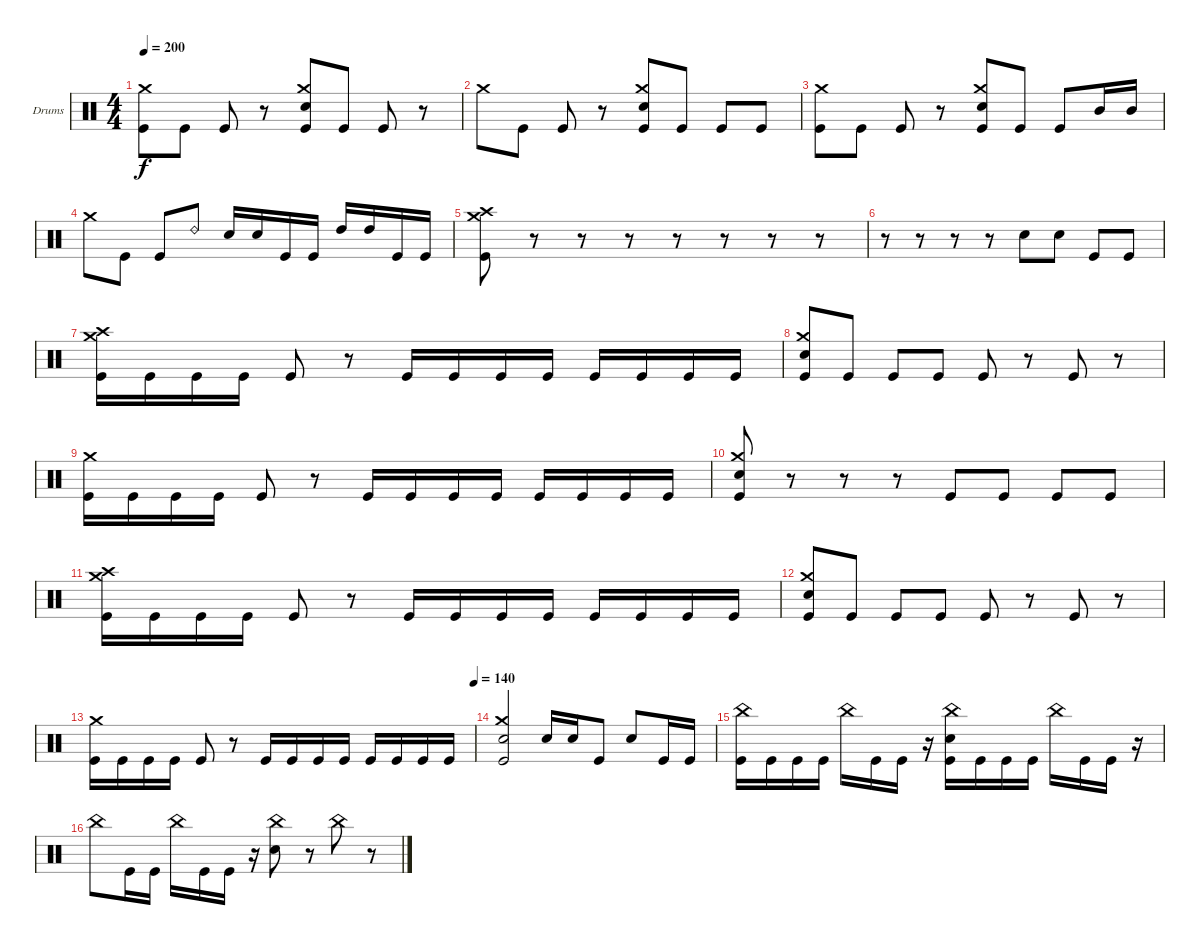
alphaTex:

\bracketExtendMode groupsimilarinstruments
\firstSystemTrackNameOrientation horizontal
\otherSystemsTrackNameOrientation horizontal
\track ("Drumkit" "Drums") {instrument percussion}
\staff {score}
\articulation defaults
\ts (4 4)
\tempo 200
\clef neutral
\ks c
("Kick (hit)" "Crash medium (hit)").8{dy f} "Kick (hit)".8 "Kick (hit)".8 r.8 ("Kick (hit)" "Crash medium (hit)" "Snare (hit) 2").8 "Kick (hit)".8 "Kick (hit)".8 r.8 |
"Crash medium (hit)".8 "Kick (hit)".8 "Kick (hit)".8 r.8 ("Crash medium (hit)" "Snare (hit) 2" "Kick (hit)").8 "Kick (hit)".8 "Kick (hit)".8 "Kick (hit)".8 |
("Kick (hit)" "Crash medium (hit)").8 "Kick (hit)".8 "Kick (hit)".8 r.8 ("Kick (hit)" "Crash medium (hit)" "Snare (hit) 2").8 "Kick (hit)".8 "Kick (hit)".8 "Mid Tom (hit)".16 "Mid Tom (hit)".16 |
"Crash medium (hit)".8 "Kick (hit)".8 "Kick (hit)".8 "Ride (bell) 2".8 "Snare (hit) 2".16 "Snare (hit) 2".16 "Kick (hit)".16 "Kick (hit)".16 "High Tom (hit)".16 "High Tom (hit)".16 "Kick (hit)".16 "Kick (hit)".16 |
("Kick (hit)" "Crash medium (hit)" "Crash high (hit)").8 r.8 r.8 r.8 r.8 r.8 r.8 r.8 |
r.8 r.8 r.8 r.8 "Snare (hit) 2".8 "Snare (hit) 2".8 "Kick (hit)".8 "Kick (hit)".8 |
("Kick (hit)" "Crash medium (hit)" "Crash high (hit)").16 "Kick (hit)".16 "Kick (hit)".16 "Kick (hit)".16 "Kick (hit)".8 r.8 "Kick (hit)".16 "Kick (hit)".16 "Kick (hit)".16 "Kick (hit)".16 "Kick (hit)".16 "Kick (hit)".16 "Kick (hit)".16 "Kick (hit)".16 |
("Kick (hit)" "Crash medium (hit)" "Snare (hit) 2").8 "Kick (hit)".8 "Kick (hit)".8 "Kick (hit)".8 "Kick (hit)".8 r.8 "Kick (hit)".8 r.8 |
("Kick (hit)" "Crash medium (hit)").16 "Kick (hit)".16 "Kick (hit)".16 "Kick (hit)".16 "Kick (hit)".8 r.8 "Kick (hit)".16 "Kick (hit)".16 "Kick (hit)".16 "Kick (hit)".16 "Kick (hit)".16 "Kick (hit)".16 "Kick (hit)".16 "Kick (hit)".16 |
("Kick (hit)" "Crash medium (hit)" "Snare (hit) 2").8 r.8 r.8 r.8 "Kick (hit)".8 "Kick (hit)".8 "Kick (hit)".8 "Kick (hit)".8 |
("Kick (hit)" "Crash medium (hit)" "Crash high (hit)").16 "Kick (hit)".16 "Kick (hit)".16 "Kick (hit)".16 "Kick (hit)".8 r.8 "Kick (hit)".16 "Kick (hit)".16 "Kick (hit)".16 "Kick (hit)".16 "Kick (hit)".16 "Kick (hit)".16 "Kick (hit)".16 "Kick (hit)".16 |
("Kick (hit)" "Crash medium (hit)" "Snare (hit) 2").8 "Kick (hit)".8 "Kick (hit)".8 "Kick (hit)".8 "Kick (hit)".8 r.8 "Kick (hit)".8 r.8 |
\tempo (140 1)
("Kick (hit)" "Crash medium (hit)").16 "Kick (hit)".16 "Kick (hit)".16 "Kick (hit)".16 "Kick (hit)".8 r.8 "Kick (hit)".16 "Kick (hit)".16 "Kick (hit)".16 "Kick (hit)".16 "Kick (hit)".16 "Kick (hit)".16 "Kick (hit)".16 "Kick (hit)".16 |
("Kick (hit)" "Crash medium (hit)" "Snare (hit) 2").2 "Snare (hit) 2".16 "Snare (hit) 2".16 "Kick (hit)".8 "Snare (hit) 2".8 "Kick (hit)".16 "Kick (hit)".16 |
("Kick (hit)" "China (hit)").16 "Kick (hit)".16 "Kick (hit)".16 "Kick (hit)".16 "China (hit)".16 "Kick (hit)".16 "Kick (hit)".16 r.16 ("Kick (hit)" "China (hit)" "Snare (hit) 2").16 "Kick (hit)".16 "Kick (hit)".16 "Kick (hit)".16 "China (hit)".16 "Kick (hit)".16 "Kick (hit)".16 r.16 |
"China (hit)".8 "Kick (hit)".16 "Kick (hit)".16 "China (hit)".16 "Kick (hit)".16 "Kick (hit)".16 r.16 ("China (hit)" "Snare (hit) 2").8 r.8 "China (hit)".8 r.8
